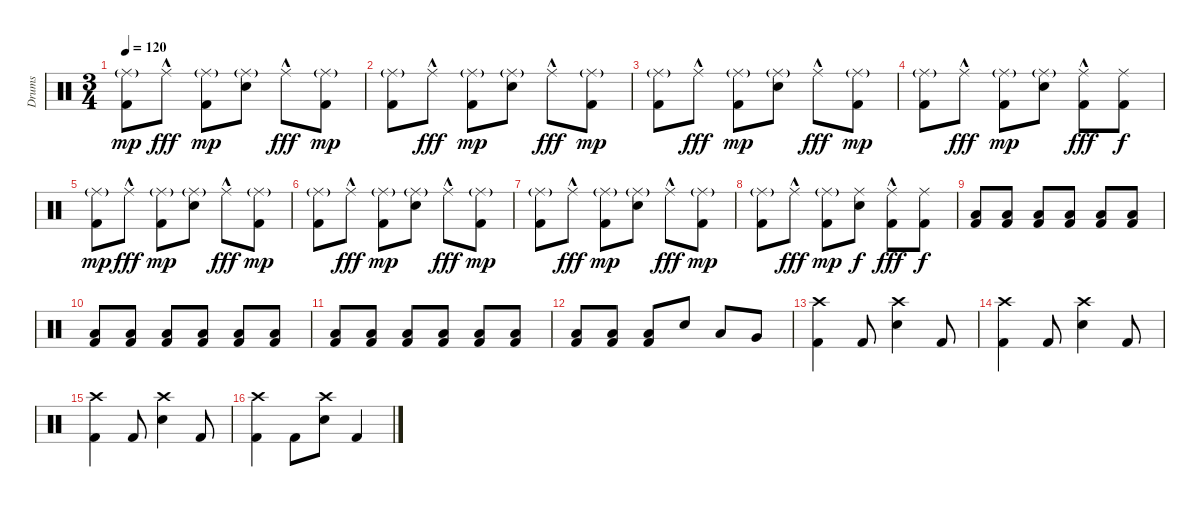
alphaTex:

\track ("Drums" "Drums") {instrument percussion}
\staff {score}
\articulation defaults
\ts (3 4)
\tempo 120
\clef neutral
\ks c
("Ride (middle)"{g} "Kick (hit) 2").8{dy mp} "Ride (middle)"{hac}.8{dy fff} ("Ride (middle)"{g} "Kick (hit) 2").8{dy mp} ("Ride (middle)"{g} "Snare (hit) 2").8 "Ride (middle)"{hac}.8{dy fff} ("Ride (middle)"{g} "Kick (hit) 2").8{dy mp} |
("Ride (middle)"{g} "Kick (hit) 2").8 "Ride (middle)"{hac}.8{dy fff} ("Ride (middle)"{g} "Kick (hit) 2").8{dy mp} ("Ride (middle)"{g} "Snare (hit) 2").8 "Ride (middle)"{hac}.8{dy fff} ("Ride (middle)"{g} "Kick (hit) 2").8{dy mp} |
("Ride (middle)"{g} "Kick (hit) 2").8 "Ride (middle)"{hac}.8{dy fff} ("Ride (middle)"{g} "Kick (hit) 2").8{dy mp} ("Ride (middle)"{g} "Snare (hit) 2").8 "Ride (middle)"{hac}.8{dy fff} ("Ride (middle)"{g} "Kick (hit) 2").8{dy mp} |
("Ride (middle)"{g} "Kick (hit) 2").8 "Ride (middle)"{hac}.8{dy fff} ("Ride (middle)"{g} "Kick (hit) 2").8{dy mp} ("Ride (middle)"{g} "Snare (hit) 2").8 ("Ride (middle)"{hac} "Kick (hit) 2").8{dy fff} ("Ride (middle)" "Kick (hit) 2").8{dy f} |
("Ride (middle)"{g} "Kick (hit) 2").8{dy mp} "Ride (middle)"{hac}.8{dy fff} ("Ride (middle)"{g} "Kick (hit) 2").8{dy mp} ("Ride (middle)"{g} "Snare (hit) 2").8 "Ride (middle)"{hac}.8{dy fff} ("Ride (middle)"{g} "Kick (hit) 2").8{dy mp} |
("Ride (middle)"{g} "Kick (hit) 2").8 "Ride (middle)"{hac}.8{dy fff} ("Ride (middle)"{g} "Kick (hit) 2").8{dy mp} ("Ride (middle)"{g} "Snare (hit) 2").8 "Ride (middle)"{hac}.8{dy fff} ("Ride (middle)"{g} "Kick (hit) 2").8{dy mp} |
("Ride (middle)"{g} "Kick (hit) 2").8 "Ride (middle)"{hac}.8{dy fff} ("Ride (middle)"{g} "Kick (hit) 2").8{dy mp} ("Ride (middle)"{g} "Snare (hit) 2").8 "Ride (middle)"{hac}.8{dy fff} ("Ride (middle)"{g} "Kick (hit) 2").8{dy mp} |
("Ride (middle)"{g} "Kick (hit) 2").8 "Ride (middle)"{hac}.8{dy fff} ("Ride (middle)"{g} "Kick (hit) 2").8{dy mp} ("Ride (middle)" "Snare (hit) 2").8{dy f} ("Ride (middle)"{hac} "Kick (hit) 2").8{dy fff} ("Ride (middle)" "Kick (hit) 2").8{dy f} |
("Kick (hit) 2" "Low Floor Tom (hit)").8 ("Kick (hit) 2" "Low Floor Tom (hit)").8 ("Kick (hit) 2" "Low Floor Tom (hit)").8 ("Kick (hit) 2" "Low Floor Tom (hit)").8 ("Kick (hit) 2" "Low Floor Tom (hit)").8 ("Kick (hit) 2" "Low Floor Tom (hit)").8 |
("Kick (hit) 2" "Low Floor Tom (hit)").8 ("Kick (hit) 2" "Low Floor Tom (hit)").8 ("Kick (hit) 2" "Low Floor Tom (hit)").8 ("Kick (hit) 2" "Low Floor Tom (hit)").8 ("Kick (hit) 2" "Low Floor Tom (hit)").8 ("Kick (hit) 2" "Low Floor Tom (hit)").8 |
("Kick (hit) 2" "Low Floor Tom (hit)").8 ("Kick (hit) 2" "Low Floor Tom (hit)").8 ("Kick (hit) 2" "Low Floor Tom (hit)").8 ("Kick (hit) 2" "Low Floor Tom (hit)").8 ("Kick (hit) 2" "Low Floor Tom (hit)").8 ("Kick (hit) 2" "Low Floor Tom (hit)").8 |
("Kick (hit) 2" "Low Floor Tom (hit)").8 ("Kick (hit) 2" "Low Floor Tom (hit)").8 ("Kick (hit) 2" "Low Floor Tom (hit)").8 "Snare (hit) 2".8 "Low Tom (hit)".8 "Very Low Tom (hit)".8 |
("Crash high (hit)" "Kick (hit) 2").4 "Kick (hit) 2".8 ("Crash high (hit)" "Snare (hit) 2").4 "Kick (hit) 2".8 |
("Crash high (hit)" "Kick (hit) 2").4 "Kick (hit) 2".8 ("Crash high (hit)" "Snare (hit) 2").4 "Kick (hit) 2".8 |
("Crash high (hit)" "Kick (hit) 2").4 "Kick (hit) 2".8 ("Crash high (hit)" "Snare (hit) 2").4 "Kick (hit) 2".8 |
("Crash high (hit)" "Kick (hit) 2").4 "Kick (hit) 2".8 ("Crash high (hit)" "Snare (hit) 2").8 "Kick (hit) 2".4
